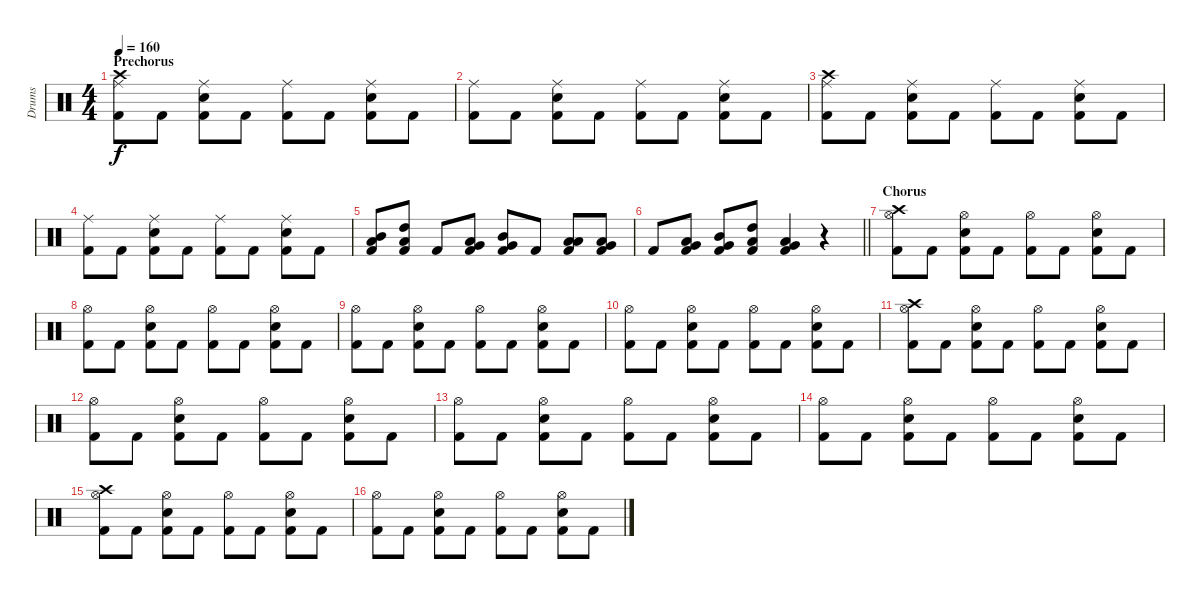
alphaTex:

\track ("Drums" "Drums") {instrument percussion}
\staff {score}
\articulation defaults
\ts (4 4)
\section ("" "Prechorus")
\tempo 160
\clef neutral
\ks c
("Crash high (hit)" "Ride (middle)" "Kick (hit) 2").8{dy f} "Kick (hit) 2".8 ("Ride (middle)" "Snare (hit) 2" "Kick (hit) 2").8 "Kick (hit) 2".8 ("Ride (middle)" "Kick (hit) 2").8 "Kick (hit) 2".8 ("Ride (middle)" "Snare (hit) 2" "Kick (hit) 2").8 "Kick (hit) 2".8 |
("Ride (middle)" "Kick (hit) 2").8 "Kick (hit) 2".8 ("Ride (middle)" "Snare (hit) 2" "Kick (hit) 2").8 "Kick (hit) 2".8 ("Ride (middle)" "Kick (hit) 2").8 "Kick (hit) 2".8 ("Ride (middle)" "Snare (hit) 2" "Kick (hit) 2").8 "Kick (hit) 2".8 |
("Crash high (hit)" "Ride (middle)" "Kick (hit) 2").8 "Kick (hit) 2".8 ("Ride (middle)" "Snare (hit) 2" "Kick (hit) 2").8 "Kick (hit) 2".8 ("Ride (middle)" "Kick (hit) 2").8 "Kick (hit) 2".8 ("Ride (middle)" "Snare (hit) 2" "Kick (hit) 2").8 "Kick (hit) 2".8 |
("Ride (middle)" "Kick (hit) 2").8 "Kick (hit) 2".8 ("Ride (middle)" "Snare (hit) 2" "Kick (hit) 2").8 "Kick (hit) 2".8 ("Ride (middle)" "Kick (hit) 2").8 "Kick (hit) 2".8 ("Ride (middle)" "Snare (hit) 2" "Kick (hit) 2").8 "Kick (hit) 2".8 |
("Mid Tom (hit)" "Low Tom (hit)" "Kick (hit) 2").8 ("High Tom (hit)" "Low Tom (hit)" "Kick (hit) 2").8 "Kick (hit) 2".8 ("Low Tom (hit)" "Very Low Tom (hit)" "Kick (hit) 2").8 ("Mid Tom (hit)" "Very Low Tom (hit)" "Kick (hit) 2").8 "Kick (hit) 2".8 ("Low Floor Tom (hit)" "Low Tom (hit)" "Kick (hit) 2").8 ("Very Low Tom (hit)" "Low Tom (hit)" "Kick (hit) 2").8 |
\barLineRight lightlight "Kick (hit) 2".8
("Low Tom (hit)" "Very Low Tom (hit)" "Kick (hit) 2").8 ("Mid Tom (hit)" "Very Low Tom (hit)" "Kick (hit) 2").8 ("High Tom (hit)" "Low Floor Tom (hit)" "Kick (hit) 2").8 ("Very Low Tom (hit)" "Low Floor Tom (hit)" "Kick (hit) 2").4 r.4 |
\section ("" "Chorus")
("Crash high (hit)" "Hi-Hat (open)" "Kick (hit) 2").8 "Kick (hit) 2".8 ("Hi-Hat (open)" "Snare (hit) 2" "Kick (hit) 2").8 "Kick (hit) 2".8 ("Hi-Hat (open)" "Kick (hit) 2").8 "Kick (hit) 2".8 ("Hi-Hat (open)" "Snare (hit) 2" "Kick (hit) 2").8 "Kick (hit) 2".8 |
("Hi-Hat (open)" "Kick (hit) 2").8 "Kick (hit) 2".8 ("Hi-Hat (open)" "Snare (hit) 2" "Kick (hit) 2").8 "Kick (hit) 2".8 ("Hi-Hat (open)" "Kick (hit) 2").8 "Kick (hit) 2".8 ("Hi-Hat (open)" "Snare (hit) 2" "Kick (hit) 2").8 "Kick (hit) 2".8 |
("Hi-Hat (open)" "Kick (hit) 2").8 "Kick (hit) 2".8 ("Hi-Hat (open)" "Snare (hit) 2" "Kick (hit) 2").8 "Kick (hit) 2".8 ("Hi-Hat (open)" "Kick (hit) 2").8 "Kick (hit) 2".8 ("Hi-Hat (open)" "Snare (hit) 2" "Kick (hit) 2").8 "Kick (hit) 2".8 |
("Hi-Hat (open)" "Kick (hit) 2").8 "Kick (hit) 2".8 ("Hi-Hat (open)" "Snare (hit) 2" "Kick (hit) 2").8 "Kick (hit) 2".8 ("Hi-Hat (open)" "Kick (hit) 2").8 "Kick (hit) 2".8 ("Hi-Hat (open)" "Snare (hit) 2" "Kick (hit) 2").8 "Kick (hit) 2".8 |
("Crash high (hit)" "Hi-Hat (open)" "Kick (hit) 2").8 "Kick (hit) 2".8 ("Hi-Hat (open)" "Snare (hit) 2" "Kick (hit) 2").8 "Kick (hit) 2".8 ("Hi-Hat (open)" "Kick (hit) 2").8 "Kick (hit) 2".8 ("Hi-Hat (open)" "Snare (hit) 2" "Kick (hit) 2").8 "Kick (hit) 2".8 |
("Hi-Hat (open)" "Kick (hit) 2").8 "Kick (hit) 2".8 ("Hi-Hat (open)" "Snare (hit) 2" "Kick (hit) 2").8 "Kick (hit) 2".8 ("Hi-Hat (open)" "Kick (hit) 2").8 "Kick (hit) 2".8 ("Hi-Hat (open)" "Snare (hit) 2" "Kick (hit) 2").8 "Kick (hit) 2".8 |
("Hi-Hat (open)" "Kick (hit) 2").8 "Kick (hit) 2".8 ("Hi-Hat (open)" "Snare (hit) 2" "Kick (hit) 2").8 "Kick (hit) 2".8 ("Hi-Hat (open)" "Kick (hit) 2").8 "Kick (hit) 2".8 ("Hi-Hat (open)" "Snare (hit) 2" "Kick (hit) 2").8 "Kick (hit) 2".8 |
("Hi-Hat (open)" "Kick (hit) 2").8 "Kick (hit) 2".8 ("Hi-Hat (open)" "Snare (hit) 2" "Kick (hit) 2").8 "Kick (hit) 2".8 ("Hi-Hat (open)" "Kick (hit) 2").8 "Kick (hit) 2".8 ("Hi-Hat (open)" "Snare (hit) 2" "Kick (hit) 2").8 "Kick (hit) 2".8 |
("Crash high (hit)" "Hi-Hat (open)" "Kick (hit) 2").8 "Kick (hit) 2".8 ("Hi-Hat (open)" "Snare (hit) 2" "Kick (hit) 2").8 "Kick (hit) 2".8 ("Hi-Hat (open)" "Kick (hit) 2").8 "Kick (hit) 2".8 ("Hi-Hat (open)" "Snare (hit) 2" "Kick (hit) 2").8 "Kick (hit) 2".8 |
("Hi-Hat (open)" "Kick (hit) 2").8 "Kick (hit) 2".8 ("Hi-Hat (open)" "Snare (hit) 2" "Kick (hit) 2").8 "Kick (hit) 2".8 ("Hi-Hat (open)" "Kick (hit) 2").8 "Kick (hit) 2".8 ("Hi-Hat (open)" "Snare (hit) 2" "Kick (hit) 2").8 "Kick (hit) 2".8
